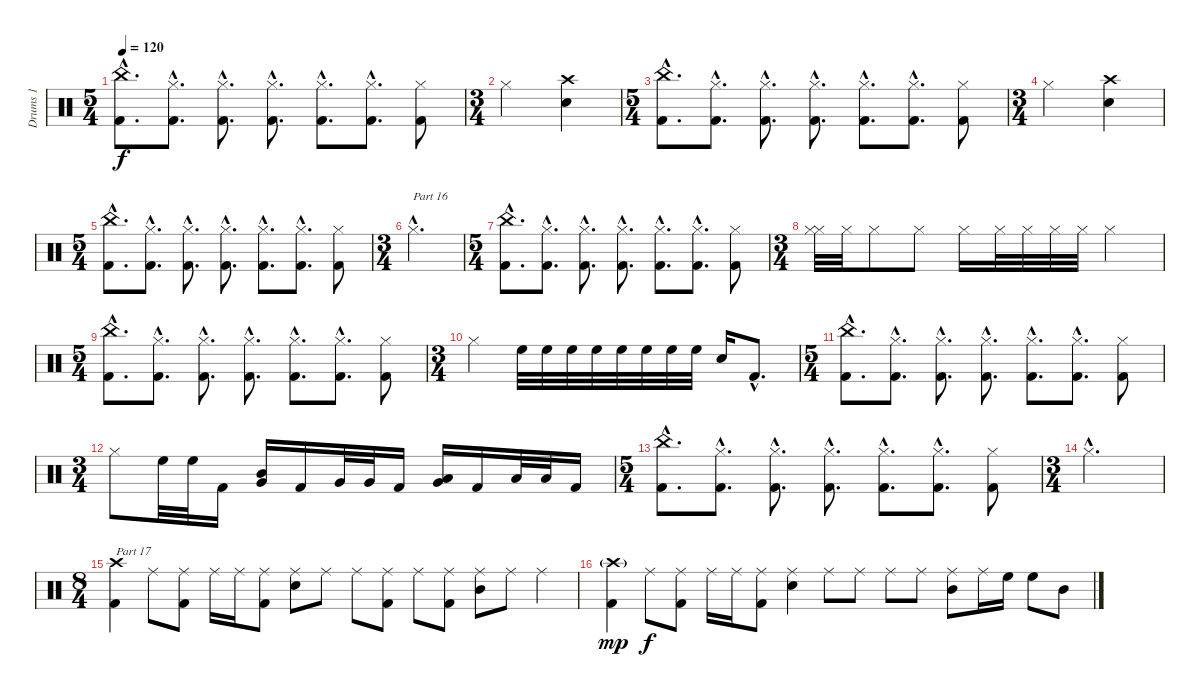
\track ("Drums 1" "Drums 1") {instrument percussion}
\staff {score}
\articulation defaults
\ts (5 4)
\tempo 120
\clef neutral
\ks c
("China (hit)"{hac} "Kick (hit) 2"{hac}).8{d dy f} ("Hi-Hat (closed)"{hac} "Kick (hit) 2"{hac}).8{d} ("Hi-Hat (closed)"{hac} "Kick (hit) 2"{hac}).8{d} ("Hi-Hat (closed)"{hac} "Kick (hit) 2"{hac}).8{d} ("Hi-Hat (closed)"{hac} "Kick (hit) 2"{hac}).8{d} ("Hi-Hat (closed)"{hac} "Kick (hit) 2"{hac}).8{d} ("Hi-Hat (closed)" "Kick (hit) 2").8 |
\ts (3 4)
"Hi-Hat (closed)".2 ("Crash high (hit)" "Snare (hit) 2").4 |
\ts (5 4)
("China (hit)"{hac} "Kick (hit) 2"{hac}).8{d} ("Hi-Hat (closed)"{hac} "Kick (hit) 2"{hac}).8{d} ("Hi-Hat (closed)"{hac} "Kick (hit) 2"{hac}).8{d} ("Hi-Hat (closed)"{hac} "Kick (hit) 2"{hac}).8{d} ("Hi-Hat (closed)"{hac} "Kick (hit) 2"{hac}).8{d} ("Hi-Hat (closed)"{hac} "Kick (hit) 2"{hac}).8{d} ("Hi-Hat (closed)" "Kick (hit) 2").8 |
\ts (3 4)
"Hi-Hat (closed)".2 ("Crash high (hit)" "Snare (hit) 2").4 |
\ts (5 4)
("China (hit)"{hac} "Kick (hit) 2"{hac}).8{d} ("Hi-Hat (closed)"{hac} "Kick (hit) 2"{hac}).8{d} ("Hi-Hat (closed)"{hac} "Kick (hit) 2"{hac}).8{d} ("Hi-Hat (closed)"{hac} "Kick (hit) 2"{hac}).8{d} ("Hi-Hat (closed)"{hac} "Kick (hit) 2"{hac}).8{d} ("Hi-Hat (closed)"{hac} "Kick (hit) 2"{hac}).8{d} ("Hi-Hat (closed)" "Kick (hit) 2").8 |
\ts (3 4)
"Hi-Hat (closed)"{hac}.2{d txt "Part 16"} |
\ts (5 4)
("China (hit)"{hac} "Kick (hit) 2"{hac}).8{d} ("Hi-Hat (closed)"{hac} "Kick (hit) 2"{hac}).8{d} ("Hi-Hat (closed)"{hac} "Kick (hit) 2"{hac}).8{d} ("Hi-Hat (closed)"{hac} "Kick (hit) 2"{hac}).8{d} ("Hi-Hat (closed)"{hac} "Kick (hit) 2"{hac}).8{d} ("Hi-Hat (closed)"{hac} "Kick (hit) 2"{hac}).8{d} ("Hi-Hat (closed)" "Kick (hit) 2").8 |
\ts (3 4)
("Hi-Hat (closed)" "Hi-Hat (closed)").32 "Hi-Hat (closed)".32 "Hi-Hat (closed)".8 "Hi-Hat (closed)".8 "Hi-Hat (closed)".16 "Hi-Hat (closed)".32 "Hi-Hat (closed)".32 "Hi-Hat (closed)".32 "Hi-Hat (closed)".32 "Hi-Hat (closed)".4 |
\ts (5 4)
("China (hit)"{hac} "Kick (hit) 2"{hac}).8{d} ("Hi-Hat (closed)"{hac} "Kick (hit) 2"{hac}).8{d} ("Hi-Hat (closed)"{hac} "Kick (hit) 2"{hac}).8{d} ("Hi-Hat (closed)"{hac} "Kick (hit) 2"{hac}).8{d} ("Hi-Hat (closed)"{hac} "Kick (hit) 2"{hac}).8{d} ("Hi-Hat (closed)"{hac} "Kick (hit) 2"{hac}).8{d} ("Hi-Hat (closed)" "Kick (hit) 2").8 |
\ts (3 4)
"Hi-Hat (closed)".4 "High Floor Tom (hit)".32 "High Floor Tom (hit)".32 "High Floor Tom (hit)".32 "High Floor Tom (hit)".32 "High Floor Tom (hit)".32 "High Floor Tom (hit)".32 "High Floor Tom (hit)".32 "High Floor Tom (hit)".32 "Snare (hit) 2".16 "Kick (hit) 2"{hac}.8{d} |
\ts (5 4)
("China (hit)"{hac} "Kick (hit) 2"{hac}).8{d} ("Hi-Hat (closed)"{hac} "Kick (hit) 2"{hac}).8{d} ("Hi-Hat (closed)"{hac} "Kick (hit) 2"{hac}).8{d} ("Hi-Hat (closed)"{hac} "Kick (hit) 2"{hac}).8{d} ("Hi-Hat (closed)"{hac} "Kick (hit) 2"{hac}).8{d} ("Hi-Hat (closed)"{hac} "Kick (hit) 2"{hac}).8{d} ("Hi-Hat (closed)" "Kick (hit) 2").8 |
\ts (3 4)
"Hi-Hat (closed)".8 "High Floor Tom (hit)".32 "High Floor Tom (hit)".32 "Kick (hit) 2".16 ("Mid Tom (hit)" "Very Low Tom (hit)").16 "Kick (hit) 2".16 "Very Low Tom (hit)".32 "Very Low Tom (hit)".32 "Kick (hit) 2".16 ("Very Low Tom (hit)" "Low Floor Tom (hit)").16 "Kick (hit) 2".16 "Low Floor Tom (hit)".32 "Low Floor Tom (hit)".32 "Kick (hit) 2".16 |
\ts (5 4)
("China (hit)"{hac} "Kick (hit) 2"{hac}).8{d} ("Hi-Hat (closed)"{hac} "Kick (hit) 2"{hac}).8{d} ("Hi-Hat (closed)"{hac} "Kick (hit) 2"{hac}).8{d} ("Hi-Hat (closed)"{hac} "Kick (hit) 2"{hac}).8{d} ("Hi-Hat (closed)"{hac} "Kick (hit) 2"{hac}).8{d} ("Hi-Hat (closed)"{hac} "Kick (hit) 2"{hac}).8{d} ("Hi-Hat (closed)" "Kick (hit) 2").8 |
\ts (3 4)
"Hi-Hat (closed)"{hac}.2{d} |
\ts (8 4)
("Crash high (hit)" "Kick (hit) 2").4{txt "Part 17"} "Ride (middle)".8 ("Ride (middle)" "Kick (hit) 2").8 "Ride (middle)".16 "Ride (middle)".16 ("Ride (middle)" "Kick (hit) 2").8 ("Ride (middle)" "Snare (hit) 2").8 "Ride (middle)".8 "Ride (middle)".8 ("Ride (middle)" "Kick (hit) 2").8 "Ride (middle)".8 ("Ride (middle)" "Kick (hit) 2").8 ("Ride (middle)" "Mid Tom (hit)").8 "Ride (middle)".8 "Ride (middle)".4 |
("Crash high (hit)"{g} "Kick (hit) 2").4{dy mp} "Ride (middle)".8{dy f} ("Ride (middle)" "Kick (hit) 2").8 "Ride (middle)".16 "Ride (middle)".16 ("Ride (middle)" "Kick (hit) 2").8 ("Ride (middle)" "Snare (hit) 2").4 "Ride (middle)".8 "Ride (middle)".8 "Ride (middle)".8 "Ride (middle)".8 ("Ride (middle)" "Mid Tom (hit)").8 "Ride (middle)".16 "High Floor Tom (hit)".16 "High Floor Tom (hit)".8 "Mid Tom (hit)".8
